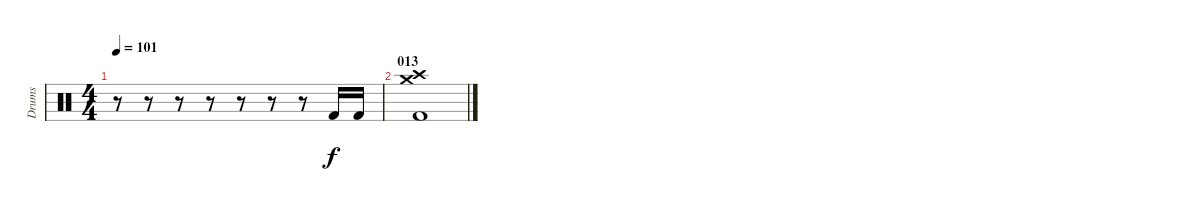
\track ("Drums" "Drums") {instrument percussion}
\staff {score}
\articulation defaults
\ts (4 4)
\tempo 101
\clef neutral
\ks c
r.8{dy f} r.8 r.8 r.8 r.8 r.8 r.8 "Kick (hit) 2".16 "Kick (hit) 2".16 |
\section ("" "013")
("Crash high (hit)" "Crash medium (hit)" "Kick (hit) 2").1
